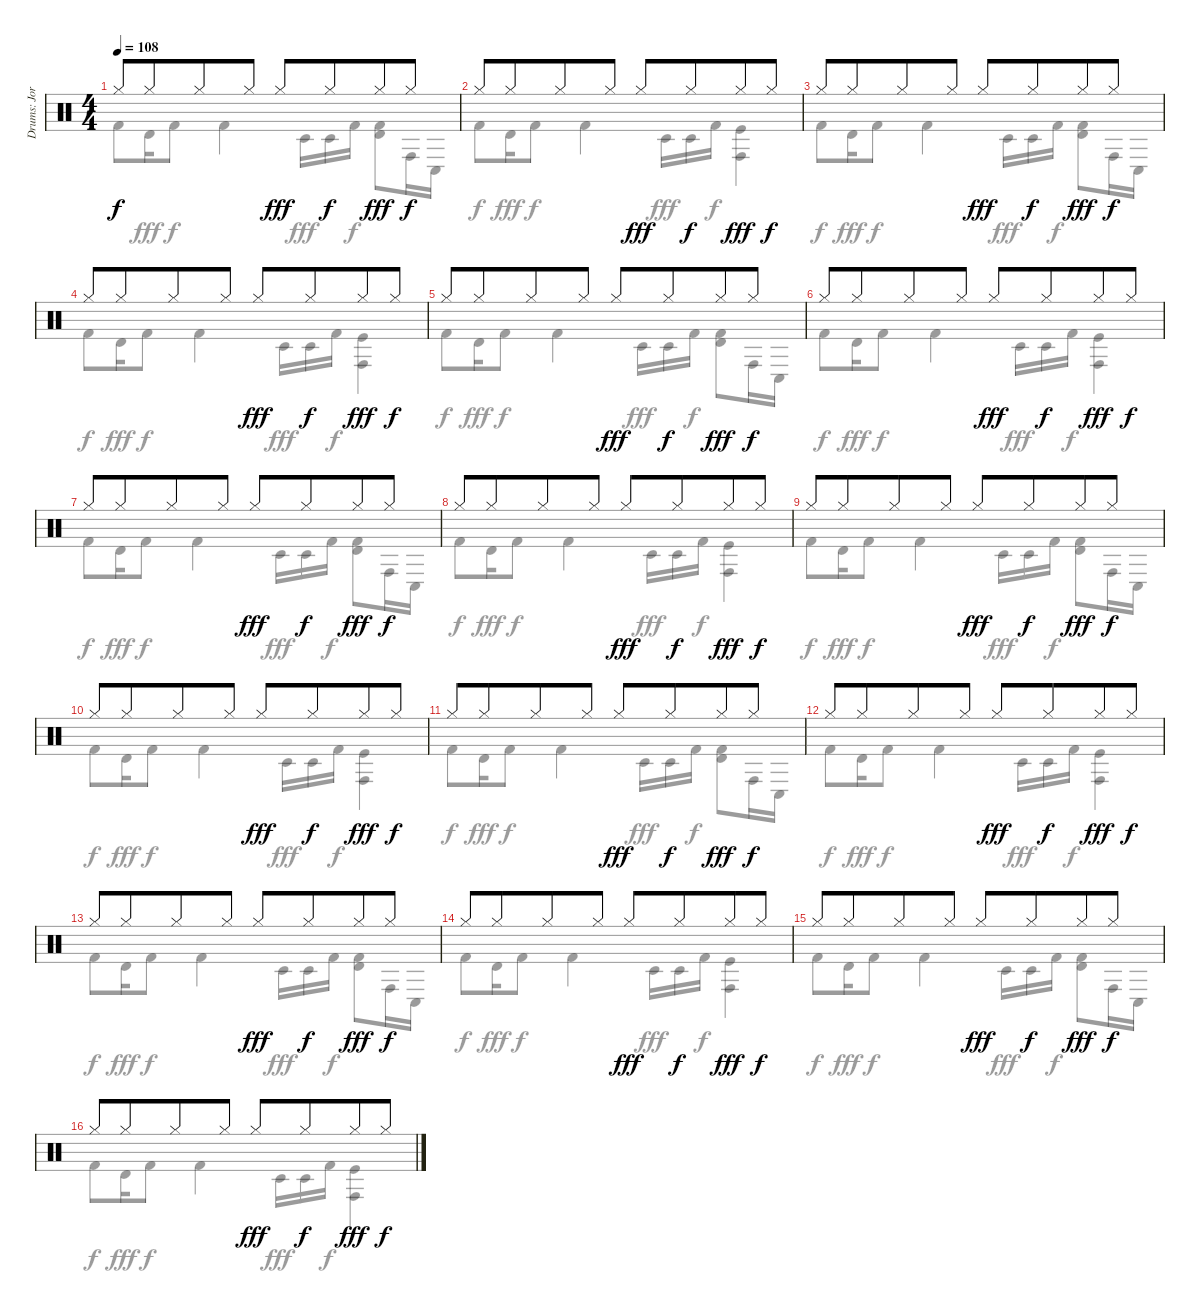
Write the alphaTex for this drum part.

\track ("Drums: Jorg" "Drums: Jor") {instrument percussion}
\staff {score}
\articulation defaults
\voice
\ts (4 4)
\tempo 108
\clef neutral
\ks c "Hi-Hat (closed)".8{dy f} "Hi-Hat (closed)".8{beam merge} "Hi-Hat (closed)".8 "Hi-Hat (closed)".8 "Hi-Hat (closed)".8{dy fff} "Hi-Hat (closed)".8{dy f beam merge} "Hi-Hat (closed)".8{dy fff} "Hi-Hat (closed)".8{dy f}
|
"Hi-Hat (closed)".8 "Hi-Hat (closed)".8{beam merge} "Hi-Hat (closed)".8 "Hi-Hat (closed)".8 "Hi-Hat (closed)".8{dy fff} "Hi-Hat (closed)".8{dy f beam merge} "Hi-Hat (closed)".8{dy fff} "Hi-Hat (closed)".8{dy f} |
"Hi-Hat (closed)".8 "Hi-Hat (closed)".8{beam merge} "Hi-Hat (closed)".8 "Hi-Hat (closed)".8 "Hi-Hat (closed)".8{dy fff} "Hi-Hat (closed)".8{dy f beam merge} "Hi-Hat (closed)".8{dy fff} "Hi-Hat (closed)".8{dy f} |
"Hi-Hat (closed)".8 "Hi-Hat (closed)".8{beam merge} "Hi-Hat (closed)".8 "Hi-Hat (closed)".8 "Hi-Hat (closed)".8{dy fff} "Hi-Hat (closed)".8{dy f beam merge} "Hi-Hat (closed)".8{dy fff} "Hi-Hat (closed)".8{dy f} |
"Hi-Hat (closed)".8 "Hi-Hat (closed)".8{beam merge} "Hi-Hat (closed)".8 "Hi-Hat (closed)".8 "Hi-Hat (closed)".8{dy fff} "Hi-Hat (closed)".8{dy f beam merge} "Hi-Hat (closed)".8{dy fff} "Hi-Hat (closed)".8{dy f} |
"Hi-Hat (closed)".8 "Hi-Hat (closed)".8{beam merge} "Hi-Hat (closed)".8 "Hi-Hat (closed)".8 "Hi-Hat (closed)".8{dy fff} "Hi-Hat (closed)".8{dy f beam merge} "Hi-Hat (closed)".8{dy fff} "Hi-Hat (closed)".8{dy f} |
"Hi-Hat (closed)".8 "Hi-Hat (closed)".8{beam merge} "Hi-Hat (closed)".8 "Hi-Hat (closed)".8 "Hi-Hat (closed)".8{dy fff} "Hi-Hat (closed)".8{dy f beam merge} "Hi-Hat (closed)".8{dy fff} "Hi-Hat (closed)".8{dy f} |
"Hi-Hat (closed)".8 "Hi-Hat (closed)".8{beam merge} "Hi-Hat (closed)".8 "Hi-Hat (closed)".8 "Hi-Hat (closed)".8{dy fff} "Hi-Hat (closed)".8{dy f beam merge} "Hi-Hat (closed)".8{dy fff} "Hi-Hat (closed)".8{dy f} |
"Hi-Hat (closed)".8 "Hi-Hat (closed)".8{beam merge} "Hi-Hat (closed)".8 "Hi-Hat (closed)".8 "Hi-Hat (closed)".8{dy fff} "Hi-Hat (closed)".8{dy f beam merge} "Hi-Hat (closed)".8{dy fff} "Hi-Hat (closed)".8{dy f} |
"Hi-Hat (closed)".8 "Hi-Hat (closed)".8{beam merge} "Hi-Hat (closed)".8 "Hi-Hat (closed)".8 "Hi-Hat (closed)".8{dy fff} "Hi-Hat (closed)".8{dy f beam merge} "Hi-Hat (closed)".8{dy fff} "Hi-Hat (closed)".8{dy f} |
"Hi-Hat (closed)".8 "Hi-Hat (closed)".8{beam merge} "Hi-Hat (closed)".8 "Hi-Hat (closed)".8 "Hi-Hat (closed)".8{dy fff} "Hi-Hat (closed)".8{dy f beam merge} "Hi-Hat (closed)".8{dy fff} "Hi-Hat (closed)".8{dy f} |
"Hi-Hat (closed)".8 "Hi-Hat (closed)".8{beam merge} "Hi-Hat (closed)".8 "Hi-Hat (closed)".8 "Hi-Hat (closed)".8{dy fff} "Hi-Hat (closed)".8{dy f beam merge} "Hi-Hat (closed)".8{dy fff} "Hi-Hat (closed)".8{dy f} |
"Hi-Hat (closed)".8 "Hi-Hat (closed)".8{beam merge} "Hi-Hat (closed)".8 "Hi-Hat (closed)".8 "Hi-Hat (closed)".8{dy fff} "Hi-Hat (closed)".8{dy f beam merge} "Hi-Hat (closed)".8{dy fff} "Hi-Hat (closed)".8{dy f} |
"Hi-Hat (closed)".8 "Hi-Hat (closed)".8{beam merge} "Hi-Hat (closed)".8 "Hi-Hat (closed)".8 "Hi-Hat (closed)".8{dy fff} "Hi-Hat (closed)".8{dy f beam merge} "Hi-Hat (closed)".8{dy fff} "Hi-Hat (closed)".8{dy f} |
"Hi-Hat (closed)".8 "Hi-Hat (closed)".8{beam merge} "Hi-Hat (closed)".8 "Hi-Hat (closed)".8 "Hi-Hat (closed)".8{dy fff} "Hi-Hat (closed)".8{dy f beam merge} "Hi-Hat (closed)".8{dy fff} "Hi-Hat (closed)".8{dy f} |
"Hi-Hat (closed)".8 "Hi-Hat (closed)".8{beam merge} "Hi-Hat (closed)".8 "Hi-Hat (closed)".8 "Hi-Hat (closed)".8{dy fff} "Hi-Hat (closed)".8{dy f beam merge} "Hi-Hat (closed)".8{dy fff} "Hi-Hat (closed)".8{dy f}
\voice
\clef neutral
\ottava regular
\simile none
\ks c "Kick (hit) 2".8{dy f} "Timbale high (hit)".16{dy fff} "Kick (hit) 2".8{dy f} "Kick (hit) 2".4 "Timbale low (hit)".16{dy fff} "Timbale low (hit)".16 "Kick (hit) 2".16{dy f}
("Kick (hit) 2" "Timbale high (hit)").8{dy fff} "Conga high (hit)".16 "Conga low (hit)".16 |
"Kick (hit) 2".8{dy f} "Timbale high (hit)".16{dy fff} "Kick (hit) 2".8{dy f} "Kick (hit) 2".4 "Timbale low (hit)".16{dy fff} "Timbale low (hit)".16 "Kick (hit) 2".16{dy f} ("Kick (hit)" "Conga high (hit)").4{dy fff} |
"Kick (hit) 2".8{dy f} "Timbale high (hit)".16{dy fff} "Kick (hit) 2".8{dy f} "Kick (hit) 2".4 "Timbale low (hit)".16{dy fff} "Timbale low (hit)".16 "Kick (hit) 2".16{dy f} ("Kick (hit) 2" "Timbale high (hit)").8{dy fff} "Conga high (hit)".16 "Conga low (hit)".16 |
"Kick (hit) 2".8{dy f} "Timbale high (hit)".16{dy fff} "Kick (hit) 2".8{dy f} "Kick (hit) 2".4 "Timbale low (hit)".16{dy fff} "Timbale low (hit)".16 "Kick (hit) 2".16{dy f} ("Kick (hit)" "Conga high (hit)").4{dy fff} |
"Kick (hit) 2".8{dy f} "Timbale high (hit)".16{dy fff} "Kick (hit) 2".8{dy f} "Kick (hit) 2".4 "Timbale low (hit)".16{dy fff} "Timbale low (hit)".16 "Kick (hit) 2".16{dy f} ("Kick (hit) 2" "Timbale high (hit)").8{dy fff} "Conga high (hit)".16 "Conga low (hit)".16 |
"Kick (hit) 2".8{dy f} "Timbale high (hit)".16{dy fff} "Kick (hit) 2".8{dy f} "Kick (hit) 2".4 "Timbale low (hit)".16{dy fff} "Timbale low (hit)".16 "Kick (hit) 2".16{dy f} ("Kick (hit)" "Conga high (hit)").4{dy fff} |
"Kick (hit) 2".8{dy f} "Timbale high (hit)".16{dy fff} "Kick (hit) 2".8{dy f} "Kick (hit) 2".4 "Timbale low (hit)".16{dy fff} "Timbale low (hit)".16 "Kick (hit) 2".16{dy f} ("Kick (hit) 2" "Timbale high (hit)").8{dy fff} "Conga high (hit)".16 "Conga low (hit)".16 |
"Kick (hit) 2".8{dy f} "Timbale high (hit)".16{dy fff} "Kick (hit) 2".8{dy f} "Kick (hit) 2".4 "Timbale low (hit)".16{dy fff} "Timbale low (hit)".16 "Kick (hit) 2".16{dy f} ("Kick (hit)" "Conga high (hit)").4{dy fff} |
"Kick (hit) 2".8{dy f} "Timbale high (hit)".16{dy fff} "Kick (hit) 2".8{dy f} "Kick (hit) 2".4 "Timbale low (hit)".16{dy fff} "Timbale low (hit)".16 "Kick (hit) 2".16{dy f} ("Kick (hit) 2" "Timbale high (hit)").8{dy fff} "Conga high (hit)".16 "Conga low (hit)".16 |
"Kick (hit) 2".8{dy f} "Timbale high (hit)".16{dy fff} "Kick (hit) 2".8{dy f} "Kick (hit) 2".4 "Timbale low (hit)".16{dy fff} "Timbale low (hit)".16 "Kick (hit) 2".16{dy f} ("Kick (hit)" "Conga high (hit)").4{dy fff} |
"Kick (hit) 2".8{dy f} "Timbale high (hit)".16{dy fff} "Kick (hit) 2".8{dy f} "Kick (hit) 2".4 "Timbale low (hit)".16{dy fff} "Timbale low (hit)".16 "Kick (hit) 2".16{dy f} ("Kick (hit) 2" "Timbale high (hit)").8{dy fff} "Conga high (hit)".16 "Conga low (hit)".16 |
"Kick (hit) 2".8{dy f} "Timbale high (hit)".16{dy fff} "Kick (hit) 2".8{dy f} "Kick (hit) 2".4 "Timbale low (hit)".16{dy fff} "Timbale low (hit)".16 "Kick (hit) 2".16{dy f} ("Kick (hit)" "Conga high (hit)").4{dy fff} |
"Kick (hit) 2".8{dy f} "Timbale high (hit)".16{dy fff} "Kick (hit) 2".8{dy f} "Kick (hit) 2".4 "Timbale low (hit)".16{dy fff} "Timbale low (hit)".16 "Kick (hit) 2".16{dy f} ("Kick (hit) 2" "Timbale high (hit)").8{dy fff} "Conga high (hit)".16 "Conga low (hit)".16 |
"Kick (hit) 2".8{dy f} "Timbale high (hit)".16{dy fff} "Kick (hit) 2".8{dy f} "Kick (hit) 2".4 "Timbale low (hit)".16{dy fff} "Timbale low (hit)".16 "Kick (hit) 2".16{dy f} ("Kick (hit)" "Conga high (hit)").4{dy fff} |
"Kick (hit) 2".8{dy f} "Timbale high (hit)".16{dy fff} "Kick (hit) 2".8{dy f} "Kick (hit) 2".4 "Timbale low (hit)".16{dy fff} "Timbale low (hit)".16 "Kick (hit) 2".16{dy f} ("Kick (hit) 2" "Timbale high (hit)").8{dy fff} "Conga high (hit)".16 "Conga low (hit)".16 |
"Kick (hit) 2".8{dy f} "Timbale high (hit)".16{dy fff} "Kick (hit) 2".8{dy f} "Kick (hit) 2".4 "Timbale low (hit)".16{dy fff} "Timbale low (hit)".16 "Kick (hit) 2".16{dy f} ("Kick (hit)" "Conga high (hit)").4{dy fff}
